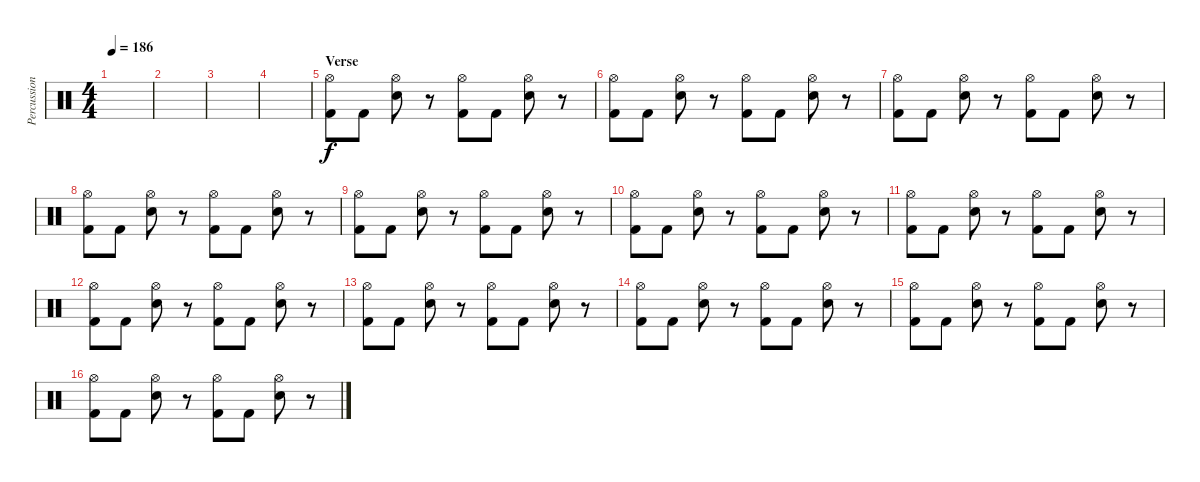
\track ("Percussion" "Percussion") {instrument percussion}
\staff {score}
\articulation defaults
\ts (4 4)
\tempo 186
\clef neutral
\ks c
|
|
|
|
\section ("" "Verse")
("Kick (hit) 2" "Hi-Hat (open)").8 "Kick (hit) 2".8 ("Electric Snare (hit)" "Hi-Hat (open)").8 r.8 ("Kick (hit) 2" "Hi-Hat (open)").8 "Kick (hit) 2".8 ("Electric Snare (hit)" "Hi-Hat (open)").8 r.8 |
("Kick (hit) 2" "Hi-Hat (open)").8 "Kick (hit) 2".8 ("Electric Snare (hit)" "Hi-Hat (open)").8 r.8 ("Kick (hit) 2" "Hi-Hat (open)").8 "Kick (hit) 2".8 ("Electric Snare (hit)" "Hi-Hat (open)").8 r.8 |
("Kick (hit) 2" "Hi-Hat (open)").8 "Kick (hit) 2".8 ("Electric Snare (hit)" "Hi-Hat (open)").8 r.8 ("Kick (hit) 2" "Hi-Hat (open)").8 "Kick (hit) 2".8 ("Electric Snare (hit)" "Hi-Hat (open)").8 r.8 |
("Kick (hit) 2" "Hi-Hat (open)").8 "Kick (hit) 2".8 ("Electric Snare (hit)" "Hi-Hat (open)").8 r.8 ("Kick (hit) 2" "Hi-Hat (open)").8 "Kick (hit) 2".8 ("Electric Snare (hit)" "Hi-Hat (open)").8 r.8 |
("Kick (hit) 2" "Hi-Hat (open)").8 "Kick (hit) 2".8 ("Electric Snare (hit)" "Hi-Hat (open)").8 r.8 ("Kick (hit) 2" "Hi-Hat (open)").8 "Kick (hit) 2".8 ("Electric Snare (hit)" "Hi-Hat (open)").8 r.8 |
("Kick (hit) 2" "Hi-Hat (open)").8 "Kick (hit) 2".8 ("Electric Snare (hit)" "Hi-Hat (open)").8 r.8 ("Kick (hit) 2" "Hi-Hat (open)").8 "Kick (hit) 2".8 ("Electric Snare (hit)" "Hi-Hat (open)").8 r.8 |
("Kick (hit) 2" "Hi-Hat (open)").8 "Kick (hit) 2".8 ("Electric Snare (hit)" "Hi-Hat (open)").8 r.8 ("Kick (hit) 2" "Hi-Hat (open)").8 "Kick (hit) 2".8 ("Electric Snare (hit)" "Hi-Hat (open)").8 r.8 |
("Kick (hit) 2" "Hi-Hat (open)").8 "Kick (hit) 2".8 ("Electric Snare (hit)" "Hi-Hat (open)").8 r.8 ("Kick (hit) 2" "Hi-Hat (open)").8 "Kick (hit) 2".8 ("Electric Snare (hit)" "Hi-Hat (open)").8 r.8 |
("Kick (hit) 2" "Hi-Hat (open)").8 "Kick (hit) 2".8 ("Electric Snare (hit)" "Hi-Hat (open)").8 r.8 ("Kick (hit) 2" "Hi-Hat (open)").8 "Kick (hit) 2".8 ("Electric Snare (hit)" "Hi-Hat (open)").8 r.8 |
("Kick (hit) 2" "Hi-Hat (open)").8 "Kick (hit) 2".8 ("Electric Snare (hit)" "Hi-Hat (open)").8 r.8 ("Kick (hit) 2" "Hi-Hat (open)").8 "Kick (hit) 2".8 ("Electric Snare (hit)" "Hi-Hat (open)").8 r.8 |
("Kick (hit) 2" "Hi-Hat (open)").8 "Kick (hit) 2".8 ("Electric Snare (hit)" "Hi-Hat (open)").8 r.8 ("Kick (hit) 2" "Hi-Hat (open)").8 "Kick (hit) 2".8 ("Electric Snare (hit)" "Hi-Hat (open)").8 r.8 |
("Kick (hit) 2" "Hi-Hat (open)").8 "Kick (hit) 2".8 ("Electric Snare (hit)" "Hi-Hat (open)").8 r.8 ("Kick (hit) 2" "Hi-Hat (open)").8 "Kick (hit) 2".8 ("Electric Snare (hit)" "Hi-Hat (open)").8 r.8
